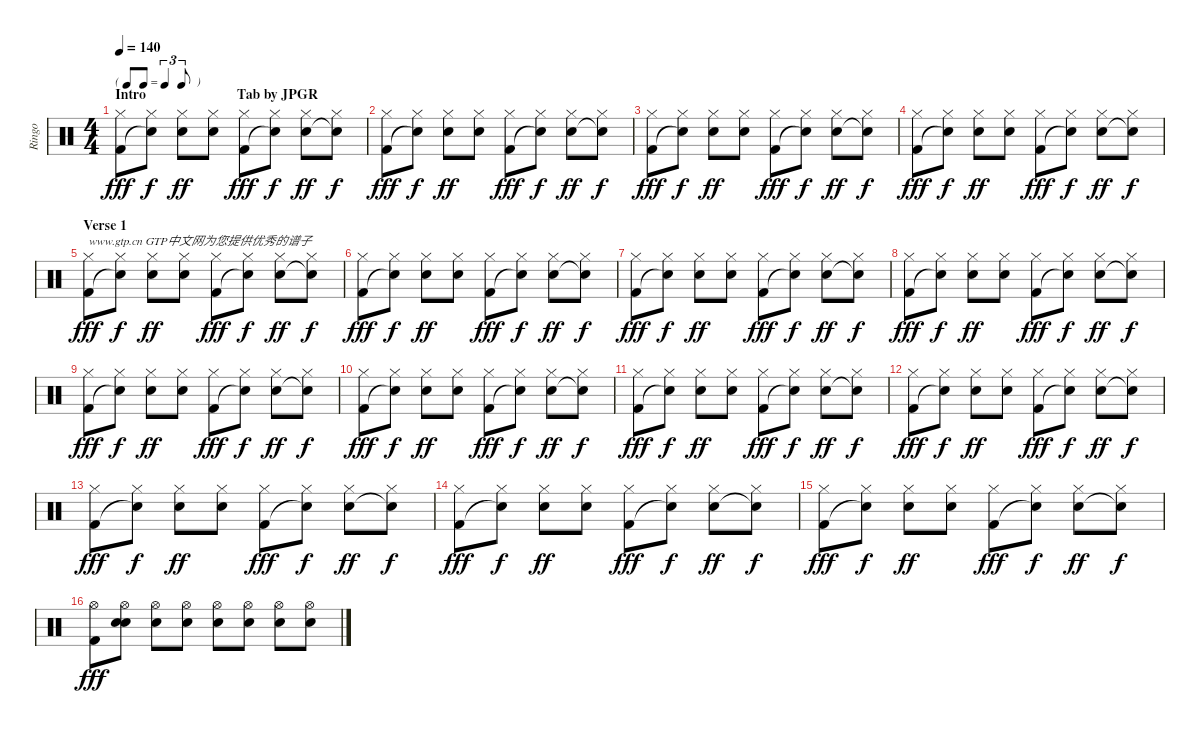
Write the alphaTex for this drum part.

\track ("Ringo" "Ringo") {instrument percussion}
\staff {score}
\articulation defaults
\ts (4 4)
\tf triplet8th
\section ("" "Intro                          Tab by JPGR")
\tempo 140
\clef neutral
\ks c
("Hi-Hat (closed)" "Kick (hit) 2").8{dy fff} ("Hi-Hat (closed)" "Snare (hit)"{t}).8{dy f} ("Hi-Hat (closed)" "Electric Snare (hit)").8{dy ff} ("Hi-Hat (closed)" "Electric Snare (hit)").8 ("Hi-Hat (closed)" "Kick (hit) 2").8{dy fff} ("Hi-Hat (closed)" "Snare (hit)"{t}).8{dy f} ("Hi-Hat (closed)" "Electric Snare (hit)").8{dy ff} ("Hi-Hat (closed)" "Snare (hit)"{t}).8{dy f} |
("Hi-Hat (closed)" "Kick (hit) 2").8{dy fff} ("Hi-Hat (closed)" "Snare (hit)"{t}).8{dy f} ("Hi-Hat (closed)" "Electric Snare (hit)").8{dy ff} ("Hi-Hat (closed)" "Electric Snare (hit)").8 ("Hi-Hat (closed)" "Kick (hit) 2").8{dy fff} ("Hi-Hat (closed)" "Snare (hit)"{t}).8{dy f} ("Hi-Hat (closed)" "Electric Snare (hit)").8{dy ff} ("Hi-Hat (closed)" "Snare (hit)"{t}).8{dy f} |
("Hi-Hat (closed)" "Kick (hit) 2").8{dy fff} ("Hi-Hat (closed)" "Snare (hit)"{t}).8{dy f} ("Hi-Hat (closed)" "Electric Snare (hit)").8{dy ff} ("Hi-Hat (closed)" "Electric Snare (hit)").8 ("Hi-Hat (closed)" "Kick (hit) 2").8{dy fff} ("Hi-Hat (closed)" "Snare (hit)"{t}).8{dy f} ("Hi-Hat (closed)" "Electric Snare (hit)").8{dy ff} ("Hi-Hat (closed)" "Snare (hit)"{t}).8{dy f} |
("Hi-Hat (closed)" "Kick (hit) 2").8{dy fff} ("Hi-Hat (closed)" "Snare (hit)"{t}).8{dy f} ("Hi-Hat (closed)" "Electric Snare (hit)").8{dy ff} ("Hi-Hat (closed)" "Electric Snare (hit)").8 ("Hi-Hat (closed)" "Kick (hit) 2").8{dy fff} ("Hi-Hat (closed)" "Snare (hit)"{t}).8{dy f} ("Hi-Hat (closed)" "Electric Snare (hit)").8{dy ff} ("Hi-Hat (closed)" "Snare (hit)"{t}).8{dy f} |
\section ("" "Verse 1")
("Hi-Hat (closed)" "Kick (hit) 2").8{txt "www.gtp.cn GTP中文网为您提供优秀的谱子" dy fff} ("Hi-Hat (closed)" "Snare (hit)"{t}).8{dy f} ("Hi-Hat (closed)" "Electric Snare (hit)").8{dy ff} ("Hi-Hat (closed)" "Electric Snare (hit)").8 ("Hi-Hat (closed)" "Kick (hit) 2").8{dy fff} ("Hi-Hat (closed)" "Snare (hit)"{t}).8{dy f} ("Hi-Hat (closed)" "Electric Snare (hit)").8{dy ff} ("Hi-Hat (closed)" "Snare (hit)"{t}).8{dy f} |
("Hi-Hat (closed)" "Kick (hit) 2").8{dy fff} ("Hi-Hat (closed)" "Snare (hit)"{t}).8{dy f} ("Hi-Hat (closed)" "Electric Snare (hit)").8{dy ff} ("Hi-Hat (closed)" "Electric Snare (hit)").8 ("Hi-Hat (closed)" "Kick (hit) 2").8{dy fff} ("Hi-Hat (closed)" "Snare (hit)"{t}).8{dy f} ("Hi-Hat (closed)" "Electric Snare (hit)").8{dy ff} ("Hi-Hat (closed)" "Snare (hit)"{t}).8{dy f} |
("Hi-Hat (closed)" "Kick (hit) 2").8{dy fff} ("Hi-Hat (closed)" "Snare (hit)"{t}).8{dy f} ("Hi-Hat (closed)" "Electric Snare (hit)").8{dy ff} ("Hi-Hat (closed)" "Electric Snare (hit)").8 ("Hi-Hat (closed)" "Kick (hit) 2").8{dy fff} ("Hi-Hat (closed)" "Snare (hit)"{t}).8{dy f} ("Hi-Hat (closed)" "Electric Snare (hit)").8{dy ff} ("Hi-Hat (closed)" "Snare (hit)"{t}).8{dy f} |
("Hi-Hat (closed)" "Kick (hit) 2").8{dy fff} ("Hi-Hat (closed)" "Snare (hit)"{t}).8{dy f} ("Hi-Hat (closed)" "Electric Snare (hit)").8{dy ff} ("Hi-Hat (closed)" "Electric Snare (hit)").8 ("Hi-Hat (closed)" "Kick (hit) 2").8{dy fff} ("Hi-Hat (closed)" "Snare (hit)"{t}).8{dy f} ("Hi-Hat (closed)" "Electric Snare (hit)").8{dy ff} ("Hi-Hat (closed)" "Snare (hit)"{t}).8{dy f} |
("Hi-Hat (closed)" "Kick (hit) 2").8{dy fff} ("Hi-Hat (closed)" "Snare (hit)"{t}).8{dy f} ("Hi-Hat (closed)" "Electric Snare (hit)").8{dy ff} ("Hi-Hat (closed)" "Electric Snare (hit)").8 ("Hi-Hat (closed)" "Kick (hit) 2").8{dy fff} ("Hi-Hat (closed)" "Snare (hit)"{t}).8{dy f} ("Hi-Hat (closed)" "Electric Snare (hit)").8{dy ff} ("Hi-Hat (closed)" "Snare (hit)"{t}).8{dy f} |
("Hi-Hat (closed)" "Kick (hit) 2").8{dy fff} ("Hi-Hat (closed)" "Snare (hit)"{t}).8{dy f} ("Hi-Hat (closed)" "Electric Snare (hit)").8{dy ff} ("Hi-Hat (closed)" "Electric Snare (hit)").8 ("Hi-Hat (closed)" "Kick (hit) 2").8{dy fff} ("Hi-Hat (closed)" "Snare (hit)"{t}).8{dy f} ("Hi-Hat (closed)" "Electric Snare (hit)").8{dy ff} ("Hi-Hat (closed)" "Snare (hit)"{t}).8{dy f} |
("Hi-Hat (closed)" "Kick (hit) 2").8{dy fff} ("Hi-Hat (closed)" "Snare (hit)"{t}).8{dy f} ("Hi-Hat (closed)" "Electric Snare (hit)").8{dy ff} ("Hi-Hat (closed)" "Electric Snare (hit)").8 ("Hi-Hat (closed)" "Kick (hit) 2").8{dy fff} ("Hi-Hat (closed)" "Snare (hit)"{t}).8{dy f} ("Hi-Hat (closed)" "Electric Snare (hit)").8{dy ff} ("Hi-Hat (closed)" "Snare (hit)"{t}).8{dy f} |
("Hi-Hat (closed)" "Kick (hit) 2").8{dy fff} ("Hi-Hat (closed)" "Snare (hit)"{t}).8{dy f} ("Hi-Hat (closed)" "Electric Snare (hit)").8{dy ff} ("Hi-Hat (closed)" "Electric Snare (hit)").8 ("Hi-Hat (closed)" "Kick (hit) 2").8{dy fff} ("Hi-Hat (closed)" "Snare (hit)"{t}).8{dy f} ("Hi-Hat (closed)" "Electric Snare (hit)").8{dy ff} ("Hi-Hat (closed)" "Snare (hit)"{t}).8{dy f} |
("Hi-Hat (closed)" "Kick (hit) 2").8{dy fff} ("Hi-Hat (closed)" "Snare (hit)"{t}).8{dy f} ("Hi-Hat (closed)" "Electric Snare (hit)").8{dy ff} ("Hi-Hat (closed)" "Electric Snare (hit)").8 ("Hi-Hat (closed)" "Kick (hit) 2").8{dy fff} ("Hi-Hat (closed)" "Snare (hit)"{t}).8{dy f} ("Hi-Hat (closed)" "Electric Snare (hit)").8{dy ff} ("Hi-Hat (closed)" "Snare (hit)"{t}).8{dy f} |
("Hi-Hat (closed)" "Kick (hit) 2").8{dy fff} ("Hi-Hat (closed)" "Snare (hit)"{t}).8{dy f} ("Hi-Hat (closed)" "Electric Snare (hit)").8{dy ff} ("Hi-Hat (closed)" "Electric Snare (hit)").8 ("Hi-Hat (closed)" "Kick (hit) 2").8{dy fff} ("Hi-Hat (closed)" "Snare (hit)"{t}).8{dy f} ("Hi-Hat (closed)" "Electric Snare (hit)").8{dy ff} ("Hi-Hat (closed)" "Snare (hit)"{t}).8{dy f} |
("Hi-Hat (closed)" "Kick (hit) 2").8{dy fff} ("Hi-Hat (closed)" "Snare (hit)"{t}).8{dy f} ("Hi-Hat (closed)" "Electric Snare (hit)").8{dy ff} ("Hi-Hat (closed)" "Electric Snare (hit)").8 ("Hi-Hat (closed)" "Kick (hit) 2").8{dy fff} ("Hi-Hat (closed)" "Snare (hit)"{t}).8{dy f} ("Hi-Hat (closed)" "Electric Snare (hit)").8{dy ff} ("Hi-Hat (closed)" "Snare (hit)"{t}).8{dy f} |
("Hi-Hat (open)" "Kick (hit) 2").8{dy fff} ("Hi-Hat (open)" "Electric Snare (hit)" "Snare (hit)").8 ("Hi-Hat (open)" "Electric Snare (hit)").8 ("Hi-Hat (open)" "Electric Snare (hit)").8 ("Hi-Hat (open)" "Electric Snare (hit)").8 ("Hi-Hat (open)" "Electric Snare (hit)").8 ("Hi-Hat (open)" "Electric Snare (hit)").8 ("Hi-Hat (open)" "Electric Snare (hit)").8
